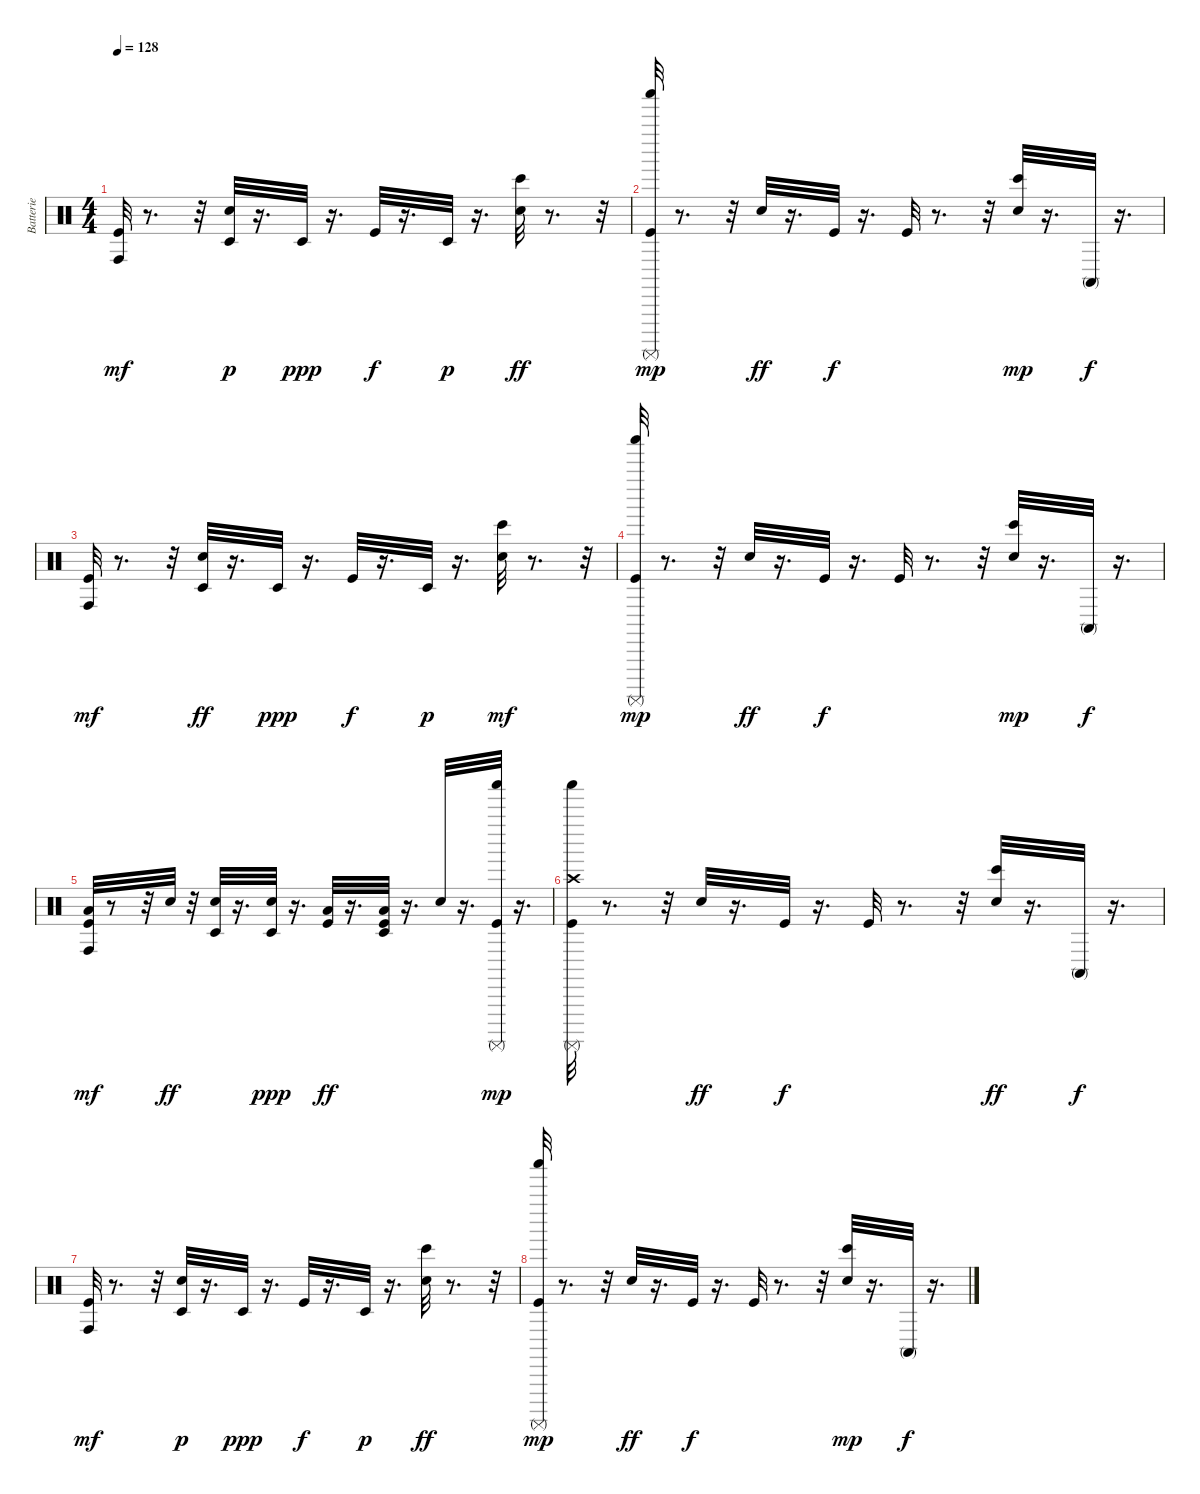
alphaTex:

\track ("Batterie" "Batterie") {instrument percussion}
\staff {score}
\articulation defaults
\ts (4 4)
\tempo 128
\clef neutral
\ks c
("Conga high (hit)" "Kick (hit)").32{dy mf} r.8{d} r.32 ("Electric Snare (hit)" "Timbale low (hit)").32{dy p} r.16{d} "Timbale low (hit)".32{dy ppp} r.16{d} "Kick (hit)".32{dy f} r.16{d} "Timbale low (hit)".32{dy p} r.16{d} ("Bongo High (hit)" "Electric Snare (hit)").32{dy ff} r.8{d} r.32 |
("Shaker (hit)" "Surdo (mute)" "Kick (hit)").32{dy mp} r.8{d} r.32 "Electric Snare (hit)".32{dy ff} r.16{d} "Kick (hit)".32{dy f} r.16{d} "Kick (hit)".32 r.8{d} r.32 ("Electric Snare (hit)" "Bongo High (hit)").32{dy mp} r.16{d} "Conga high (mute)".32{dy f} r.16{d} |
("Conga high (hit)" "Kick (hit)").32{dy mf} r.8{d} r.32 ("Timbale low (hit)" "Electric Snare (hit)").32{dy ff} r.16{d} "Timbale low (hit)".32{dy ppp} r.16{d} "Kick (hit)".32{dy f} r.16{d} "Timbale low (hit)".32{dy p} r.16{d} ("Electric Snare (hit)" "Bongo High (hit)").32{dy mf} r.8{d} r.32 |
("Kick (hit)" "Surdo (mute)" "Shaker (hit)").32{dy mp} r.8{d} r.32 "Electric Snare (hit)".32{dy ff} r.16{d} "Kick (hit)".32{dy f} r.16{d} "Kick (hit)".32 r.8{d} r.32 ("Electric Snare (hit)" "Bongo High (hit)").32{dy mp} r.16{d} "Conga high (mute)".32{dy f} r.16{d} |
("Conga high (hit)" "Low Tom (hit)" "Kick (hit)").32{dy mf} r.8 r.32 "Electric Snare (hit)".32{dy ff} r.32 ("Timbale low (hit)" "Electric Snare (hit)").32 r.16{d} ("Electric Snare (hit)" "Timbale low (hit)").32{dy ppp} r.16{d} ("Kick (hit)" "Low Floor Tom (hit)").32{dy ff} r.16{d} ("Low Floor Tom (hit)" "Timbale low (hit)" "Kick (hit)").32 r.16{d} "Electric Snare (hit)".32 r.16{d} ("Kick (hit)" "Shaker (hit)" "Surdo (mute)").32{dy mp} r.16{d} |
("Kick (hit)" "Shaker (hit)" "Surdo (mute)" "Crash high (hit)").32 r.8{d} r.32 "Electric Snare (hit)".32{dy ff} r.16{d} "Kick (hit)".32{dy f} r.16{d} "Kick (hit)".32 r.8{d} r.32 ("Bongo High (hit)" "Electric Snare (hit)").32{dy ff} r.16{d} "Conga high (mute)".32{dy f} r.16{d} |
("Conga high (hit)" "Kick (hit)").32{dy mf} r.8{d} r.32 ("Electric Snare (hit)" "Timbale low (hit)").32{dy p} r.16{d} "Timbale low (hit)".32{dy ppp} r.16{d} "Kick (hit)".32{dy f} r.16{d} "Timbale low (hit)".32{dy p} r.16{d} ("Bongo High (hit)" "Electric Snare (hit)").32{dy ff} r.8{d} r.32 |
("Shaker (hit)" "Surdo (mute)" "Kick (hit)").32{dy mp} r.8{d} r.32 "Electric Snare (hit)".32{dy ff} r.16{d} "Kick (hit)".32{dy f} r.16{d} "Kick (hit)".32 r.8{d} r.32 ("Electric Snare (hit)" "Bongo High (hit)").32{dy mp} r.16{d} "Conga high (mute)".32{dy f} r.16{d}
